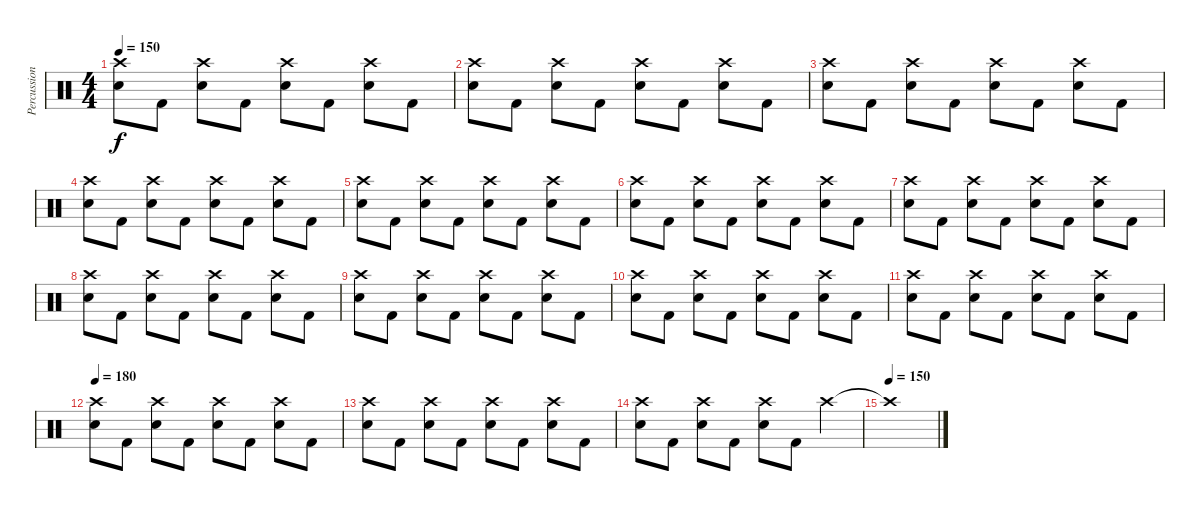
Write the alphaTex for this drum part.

\track ("Percussion" "Percussion") {instrument percussion}
\staff {score}
\articulation defaults
\ts (4 4)
\tempo 150
\clef neutral
\ks c
("Crash high (hit)" "Electric Snare (hit)").8{dy f} "Kick (hit) 2".8 ("Crash high (hit)" "Electric Snare (hit)").8 "Kick (hit) 2".8 ("Crash high (hit)" "Electric Snare (hit)").8 "Kick (hit) 2".8 ("Crash high (hit)" "Electric Snare (hit)").8 "Kick (hit) 2".8 |
("Crash high (hit)" "Electric Snare (hit)").8 "Kick (hit) 2".8 ("Crash high (hit)" "Electric Snare (hit)").8 "Kick (hit) 2".8 ("Crash high (hit)" "Electric Snare (hit)").8 "Kick (hit) 2".8 ("Crash high (hit)" "Electric Snare (hit)").8 "Kick (hit) 2".8 |
("Crash high (hit)" "Electric Snare (hit)").8 "Kick (hit) 2".8 ("Crash high (hit)" "Electric Snare (hit)").8 "Kick (hit) 2".8 ("Crash high (hit)" "Electric Snare (hit)").8 "Kick (hit) 2".8 ("Crash high (hit)" "Electric Snare (hit)").8 "Kick (hit) 2".8 |
("Crash high (hit)" "Electric Snare (hit)").8 "Kick (hit) 2".8 ("Crash high (hit)" "Electric Snare (hit)").8 "Kick (hit) 2".8 ("Crash high (hit)" "Electric Snare (hit)").8 "Kick (hit) 2".8 ("Crash high (hit)" "Electric Snare (hit)").8 "Kick (hit) 2".8 |
("Crash high (hit)" "Electric Snare (hit)").8 "Kick (hit) 2".8 ("Crash high (hit)" "Electric Snare (hit)").8 "Kick (hit) 2".8 ("Crash high (hit)" "Electric Snare (hit)").8 "Kick (hit) 2".8 ("Crash high (hit)" "Electric Snare (hit)").8 "Kick (hit) 2".8 |
("Crash high (hit)" "Electric Snare (hit)").8 "Kick (hit) 2".8 ("Crash high (hit)" "Electric Snare (hit)").8 "Kick (hit) 2".8 ("Crash high (hit)" "Electric Snare (hit)").8 "Kick (hit) 2".8 ("Crash high (hit)" "Electric Snare (hit)").8 "Kick (hit) 2".8 |
("Crash high (hit)" "Electric Snare (hit)").8 "Kick (hit) 2".8 ("Crash high (hit)" "Electric Snare (hit)").8 "Kick (hit) 2".8 ("Crash high (hit)" "Electric Snare (hit)").8 "Kick (hit) 2".8 ("Crash high (hit)" "Electric Snare (hit)").8 "Kick (hit) 2".8 |
("Crash high (hit)" "Electric Snare (hit)").8 "Kick (hit) 2".8 ("Crash high (hit)" "Electric Snare (hit)").8 "Kick (hit) 2".8 ("Crash high (hit)" "Electric Snare (hit)").8 "Kick (hit) 2".8 ("Crash high (hit)" "Electric Snare (hit)").8 "Kick (hit) 2".8 |
("Crash high (hit)" "Electric Snare (hit)").8 "Kick (hit) 2".8 ("Crash high (hit)" "Electric Snare (hit)").8 "Kick (hit) 2".8 ("Crash high (hit)" "Electric Snare (hit)").8 "Kick (hit) 2".8 ("Crash high (hit)" "Electric Snare (hit)").8 "Kick (hit) 2".8 |
("Crash high (hit)" "Electric Snare (hit)").8 "Kick (hit) 2".8 ("Crash high (hit)" "Electric Snare (hit)").8 "Kick (hit) 2".8 ("Crash high (hit)" "Electric Snare (hit)").8 "Kick (hit) 2".8 ("Crash high (hit)" "Electric Snare (hit)").8 "Kick (hit) 2".8 |
("Crash high (hit)" "Electric Snare (hit)").8 "Kick (hit) 2".8 ("Crash high (hit)" "Electric Snare (hit)").8 "Kick (hit) 2".8 ("Crash high (hit)" "Electric Snare (hit)").8 "Kick (hit) 2".8 ("Crash high (hit)" "Electric Snare (hit)").8 "Kick (hit) 2".8 |
\tempo 180
("Crash high (hit)" "Electric Snare (hit)").8 "Kick (hit) 2".8 ("Crash high (hit)" "Electric Snare (hit)").8 "Kick (hit) 2".8 ("Crash high (hit)" "Electric Snare (hit)").8 "Kick (hit) 2".8 ("Crash high (hit)" "Electric Snare (hit)").8 "Kick (hit) 2".8 |
("Crash high (hit)" "Electric Snare (hit)").8 "Kick (hit) 2".8 ("Crash high (hit)" "Electric Snare (hit)").8 "Kick (hit) 2".8 ("Crash high (hit)" "Electric Snare (hit)").8 "Kick (hit) 2".8 ("Crash high (hit)" "Electric Snare (hit)").8 "Kick (hit) 2".8 |
("Crash high (hit)" "Electric Snare (hit)").8 "Kick (hit) 2".8 ("Crash high (hit)" "Electric Snare (hit)").8 "Kick (hit) 2".8 ("Crash high (hit)" "Electric Snare (hit)").8 "Kick (hit) 2".8 "Crash high (hit)".4 |
\tempo (150)
"Crash high (hit)"{t}.1
